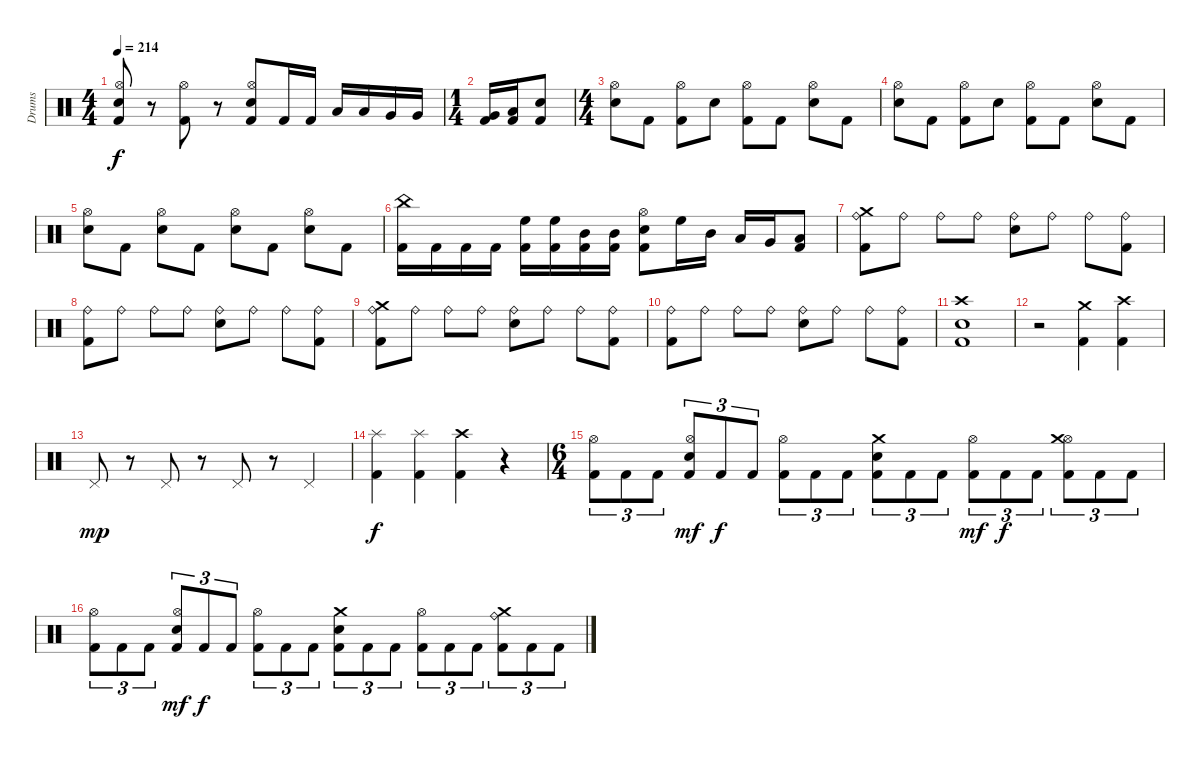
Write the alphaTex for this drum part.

\track ("Drums" "Drums") {instrument percussion}
\staff {score}
\articulation defaults
\ts (4 4)
\tempo 214
\clef neutral
\ks c
("Snare (hit) 2" "Hi-Hat (open)" "Kick (hit) 2").8{dy f} r.8 ("Hi-Hat (open)" "Kick (hit) 2").8 r.8 ("Snare (hit) 2" "Hi-Hat (open)" "Kick (hit) 2").8 "Kick (hit) 2".16 "Kick (hit) 2".16 "Low Floor Tom (hit)".16 "Low Floor Tom (hit)".16 "Very Low Tom (hit)".16 "Very Low Tom (hit)".16 |
\ts (1 4)
("Very Low Tom (hit)" "Kick (hit) 2").16 ("Low Floor Tom (hit)" "Kick (hit) 2").16 ("Snare (hit) 2" "Kick (hit) 2").8 |
\ts (4 4)
("Hi-Hat (open)" "Snare (hit) 2").8 "Kick (hit) 2".8 ("Hi-Hat (open)" "Kick (hit) 2").8 "Snare (hit) 2".8 ("Hi-Hat (open)" "Kick (hit) 2").8 "Kick (hit) 2".8 ("Hi-Hat (open)" "Snare (hit) 2").8 "Kick (hit) 2".8 |
("Hi-Hat (open)" "Snare (hit) 2").8 "Kick (hit) 2".8 ("Hi-Hat (open)" "Kick (hit) 2").8 "Snare (hit) 2".8 ("Hi-Hat (open)" "Kick (hit) 2").8 "Kick (hit) 2".8 ("Hi-Hat (open)" "Snare (hit) 2").8 "Kick (hit) 2".8 |
("Snare (hit) 2" "Hi-Hat (open)").8 "Kick (hit) 2".8 ("Snare (hit) 2" "Hi-Hat (open)").8 "Kick (hit) 2".8 ("Snare (hit) 2" "Hi-Hat (open)").8 "Kick (hit) 2".8 ("Snare (hit) 2" "Hi-Hat (open)").8 "Kick (hit) 2".8 |
("China (hit)" "Kick (hit) 2").16 "Kick (hit) 2".16 "Kick (hit) 2".16 "Kick (hit) 2".16 ("High Floor Tom (hit)" "Kick (hit) 2").16 ("High Floor Tom (hit)" "Kick (hit) 2").16 ("Mid Tom (hit)" "Kick (hit) 2").16 ("Mid Tom (hit)" "Kick (hit) 2").16 ("Snare (hit) 2" "Hi-Hat (open)" "Kick (hit) 2").8 "High Floor Tom (hit)".16 "Mid Tom (hit)".16 "Low Tom (hit)".16 "Very Low Tom (hit)".16 ("Low Floor Tom (hit)" "Kick (hit) 2").8 |
("Ride (bell)" "Kick (hit) 2" "Crash medium (hit)").8 "Ride (bell)".8 "Ride (bell)".8 "Ride (bell)".8 ("Snare (hit) 2" "Ride (bell)").8 "Ride (bell)".8 "Ride (bell)".8 ("Ride (bell)" "Kick (hit) 2").8 |
("Ride (bell)" "Kick (hit) 2").8 "Ride (bell)".8 "Ride (bell)".8 "Ride (bell)".8 ("Snare (hit) 2" "Ride (bell)").8 "Ride (bell)".8 "Ride (bell)".8 ("Ride (bell)" "Kick (hit) 2").8 |
("Ride (bell)" "Kick (hit) 2" "Crash medium (hit)").8 "Ride (bell)".8 "Ride (bell)".8 "Ride (bell)".8 ("Snare (hit) 2" "Ride (bell)").8 "Ride (bell)".8 "Ride (bell)".8 ("Ride (bell)" "Kick (hit) 2").8 |
("Ride (bell)" "Kick (hit) 2").8 "Ride (bell)".8 "Ride (bell)".8 "Ride (bell)".8 ("Snare (hit) 2" "Ride (bell)").8 "Ride (bell)".8 "Ride (bell)".8 ("Ride (bell)" "Kick (hit) 2").8 |
("Snare (hit) 2" "Crash high (hit)" "Kick (hit) 2").1 |
r.2 ("Kick (hit) 2" "Crash medium (hit)").4 ("Kick (hit) 2" "Crash high (hit)").4 |
"Pedal Hi-Hat (hit)".8{dy mp} r.8 "Pedal Hi-Hat (hit)".8 r.8 "Pedal Hi-Hat (hit)".8 r.8 "Pedal Hi-Hat (hit)".4 |
("Kick (hit) 2" "Splash (hit)").4{dy f} ("Kick (hit) 2" "Splash (hit)").4 ("Kick (hit) 2" "Crash high (hit)").4 r.4 |
\ts (6 4)
("Kick (hit) 2" "Hi-Hat (open)").8{tu (3 2)} "Kick (hit) 2".8{tu (3 2)} "Kick (hit) 2".8{tu (3 2)} ("Kick (hit) 2" "Hi-Hat (open)" "Snare (hit) 2").8{tu (3 2) dy mf} "Kick (hit) 2".8{tu (3 2) dy f} "Kick (hit) 2".8{tu (3 2)} ("Kick (hit) 2" "Hi-Hat (open)").8{tu (3 2)} "Kick (hit) 2".8{tu (3 2)} "Kick (hit) 2".8{tu (3 2)} ("Kick (hit) 2" "Crash medium (hit)" "Snare (hit) 2").8{tu (3 2)} "Kick (hit) 2".8{tu (3 2)} "Kick (hit) 2".8{tu (3 2)} ("Kick (hit) 2" "Hi-Hat (open)").8{tu (3 2) dy mf} "Kick (hit) 2".8{tu (3 2) dy f} "Kick (hit) 2".8{tu (3 2)} ("Kick (hit) 2" "Hi-Hat (open)" "Crash medium (hit)").8{tu (3 2)} "Kick (hit) 2".8{tu (3 2)} "Kick (hit) 2".8{tu (3 2)} |
("Kick (hit) 2" "Hi-Hat (open)").8{tu (3 2)} "Kick (hit) 2".8{tu (3 2)} "Kick (hit) 2".8{tu (3 2)} ("Kick (hit) 2" "Hi-Hat (open)" "Snare (hit) 2").8{tu (3 2) dy mf} "Kick (hit) 2".8{tu (3 2) dy f} "Kick (hit) 2".8{tu (3 2)} ("Kick (hit) 2" "Hi-Hat (open)").8{tu (3 2)} "Kick (hit) 2".8{tu (3 2)} "Kick (hit) 2".8{tu (3 2)} ("Kick (hit) 2" "Crash medium (hit)" "Snare (hit) 2").8{tu (3 2)} "Kick (hit) 2".8{tu (3 2)} "Kick (hit) 2".8{tu (3 2)} ("Kick (hit) 2" "Hi-Hat (open)").8{tu (3 2)} "Kick (hit) 2".8{tu (3 2)} "Kick (hit) 2".8{tu (3 2)} ("Kick (hit) 2" "Ride (bell)" "Crash medium (hit)").8{tu (3 2)} "Kick (hit) 2".8{tu (3 2)} "Kick (hit) 2".8{tu (3 2)}
